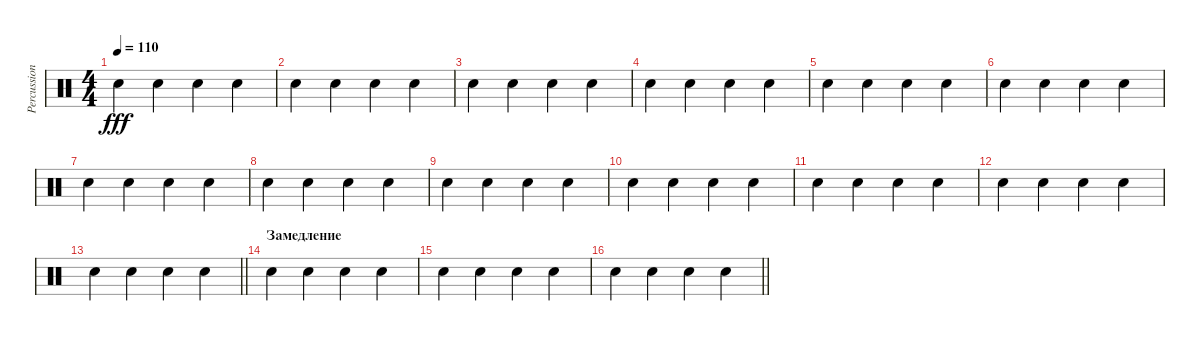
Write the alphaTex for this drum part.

\track ("Percussion" "Percussion") {mute instrument percussion}
\staff {score}
\articulation defaults
\ts (4 4)
\tempo 110
\clef neutral
\ks c "Snare (hit) 2".4{dy fff} "Snare (hit) 2".4 "Snare (hit) 2".4 "Snare (hit) 2".4
|
"Snare (hit) 2".4 "Snare (hit) 2".4 "Snare (hit) 2".4 "Snare (hit) 2".4 |
"Snare (hit) 2".4 "Snare (hit) 2".4 "Snare (hit) 2".4 "Snare (hit) 2".4 |
"Snare (hit) 2".4 "Snare (hit) 2".4 "Snare (hit) 2".4 "Snare (hit) 2".4 |
"Snare (hit) 2".4 "Snare (hit) 2".4 "Snare (hit) 2".4 "Snare (hit) 2".4 |
"Snare (hit) 2".4 "Snare (hit) 2".4 "Snare (hit) 2".4 "Snare (hit) 2".4 |
"Snare (hit) 2".4 "Snare (hit) 2".4 "Snare (hit) 2".4 "Snare (hit) 2".4 |
"Snare (hit) 2".4 "Snare (hit) 2".4 "Snare (hit) 2".4 "Snare (hit) 2".4 |
"Snare (hit) 2".4 "Snare (hit) 2".4 "Snare (hit) 2".4 "Snare (hit) 2".4 |
"Snare (hit) 2".4 "Snare (hit) 2".4 "Snare (hit) 2".4 "Snare (hit) 2".4 |
"Snare (hit) 2".4 "Snare (hit) 2".4 "Snare (hit) 2".4 "Snare (hit) 2".4 |
"Snare (hit) 2".4 "Snare (hit) 2".4 "Snare (hit) 2".4 "Snare (hit) 2".4 |
\barLineRight lightlight "Snare (hit) 2".4 "Snare (hit) 2".4 "Snare (hit) 2".4 "Snare (hit) 2".4
|
\section ("" "Замедление")
"Snare (hit) 2".4 "Snare (hit) 2".4 "Snare (hit) 2".4 "Snare (hit) 2".4 |
"Snare (hit) 2".4 "Snare (hit) 2".4 "Snare (hit) 2".4 "Snare (hit) 2".4 |
\barLineRight lightlight "Snare (hit) 2".4 "Snare (hit) 2".4 "Snare (hit) 2".4 "Snare (hit) 2".4
